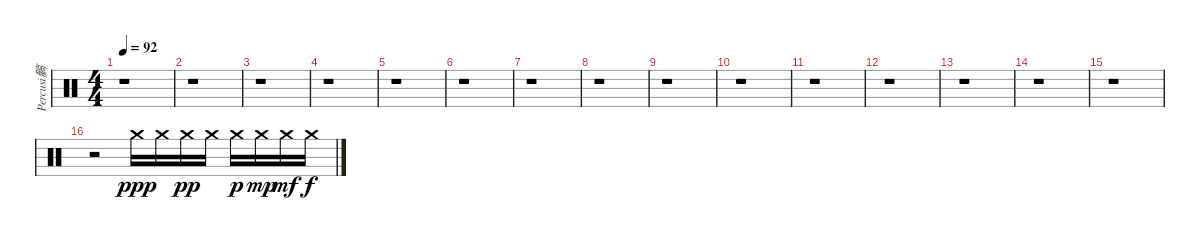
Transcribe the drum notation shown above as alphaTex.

\track ("Percusi髇" "Percusi髇") {instrument percussion}
\staff {score}
\articulation defaults
\ts (4 4)
\tempo 92
\clef neutral
\ks c
r.1{dy ppp} |
r.1 |
r.1 |
r.1 |
r.1 |
r.1 |
r.1 |
r.1 |
r.1 |
r.1 |
r.1 |
r.1 |
r.1 |
r.1 |
r.1 |
r.2 "Crash medium (hit)".16 "Crash medium (hit)".16 "Crash medium (hit)".16{dy pp} "Crash medium (hit)".16 "Crash medium (hit)".16{dy p} "Crash medium (hit)".16{dy mp} "Crash medium (hit)".16{dy mf} "Crash medium (hit)".16{dy f}
